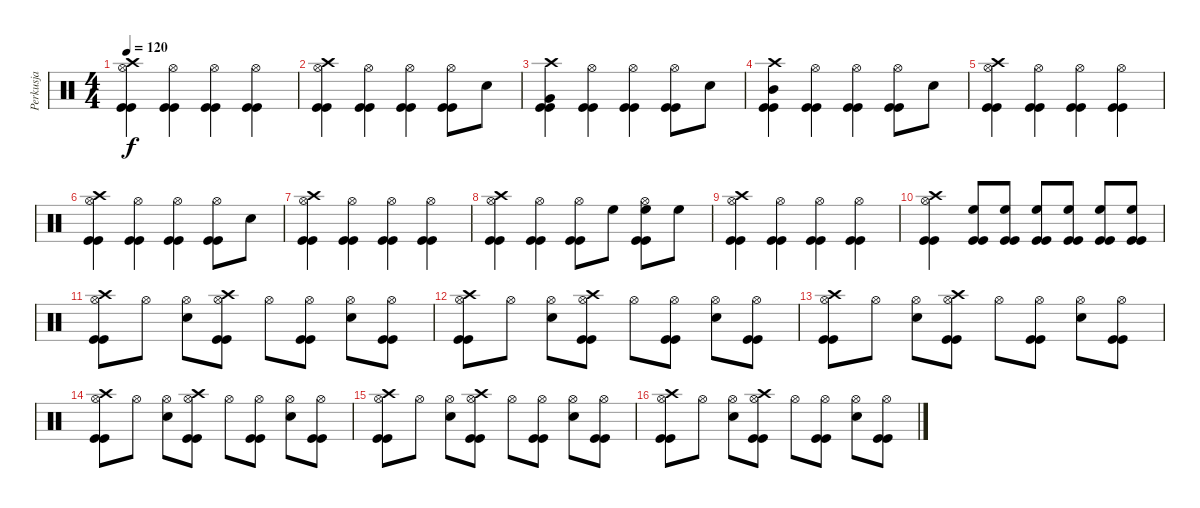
\track ("Perkusja" "Perkusja") {instrument percussion}
\staff
\articulation defaults
\ts (4 4)
\tempo 120
\clef neutral
\ks c
("Crash high (hit)" "Hi-Hat (open)" "Kick (hit)" "Kick (hit)").4{dy f} ("Hi-Hat (open)" "Kick (hit)" "Kick (hit)").4 ("Hi-Hat (open)" "Kick (hit)" "Kick (hit)").4 ("Hi-Hat (open)" "Kick (hit)" "Kick (hit)").4 |
("Crash high (hit)" "Hi-Hat (open)" "Kick (hit)" "Kick (hit)").4 ("Hi-Hat (open)" "Kick (hit)" "Kick (hit)").4 ("Hi-Hat (open)" "Kick (hit)" "Kick (hit)").4 ("Hi-Hat (open)" "Kick (hit)" "Kick (hit)").8 "Snare (hit) 2".8 |
("Crash high (hit)" "Very Low Tom (hit)" "Kick (hit)" "Kick (hit)").4 ("Hi-Hat (open)" "Kick (hit)" "Kick (hit)").4 ("Hi-Hat (open)" "Kick (hit)" "Kick (hit)").4 ("Hi-Hat (open)" "Kick (hit)" "Kick (hit)").8 "Snare (hit) 2".8 |
("Crash high (hit)" "Mid Tom (hit)" "Kick (hit)" "Kick (hit)").4 ("Hi-Hat (open)" "Kick (hit)" "Kick (hit)").4 ("Hi-Hat (open)" "Kick (hit)" "Kick (hit)").4 ("Hi-Hat (open)" "Kick (hit)" "Kick (hit)").8 "Snare (hit) 2".8 |
("Crash high (hit)" "Hi-Hat (open)" "Kick (hit)" "Kick (hit)").4 ("Hi-Hat (open)" "Kick (hit)" "Kick (hit)").4 ("Hi-Hat (open)" "Kick (hit)" "Kick (hit)").4 ("Hi-Hat (open)" "Kick (hit)" "Kick (hit)").4 |
("Crash high (hit)" "Hi-Hat (open)" "Kick (hit)" "Kick (hit)").4 ("Hi-Hat (open)" "Kick (hit)" "Kick (hit)").4 ("Hi-Hat (open)" "Kick (hit)" "Kick (hit)").4 ("Hi-Hat (open)" "Kick (hit)" "Kick (hit)").8 "Snare (hit) 2".8 |
("Crash high (hit)" "Hi-Hat (open)" "Kick (hit)" "Kick (hit)").4 ("Hi-Hat (open)" "Kick (hit)" "Kick (hit)").4 ("Hi-Hat (open)" "Kick (hit)" "Kick (hit)").4 ("Hi-Hat (open)" "Kick (hit)" "Kick (hit)").4 |
("Crash high (hit)" "Hi-Hat (open)" "Kick (hit)" "Kick (hit)").4 ("Hi-Hat (open)" "Kick (hit)" "Kick (hit)").4 ("Hi-Hat (open)" "Kick (hit)" "Kick (hit)").8 "High Floor Tom (hit)".8 ("Hi-Hat (open)" "Kick (hit)" "High Floor Tom (hit)" "Kick (hit)").8 "High Floor Tom (hit)".8 |
("Crash high (hit)" "Hi-Hat (open)" "Kick (hit)" "Kick (hit)").4 ("Hi-Hat (open)" "Kick (hit)" "Kick (hit)").4 ("Hi-Hat (open)" "Kick (hit)" "Kick (hit)").4 ("Hi-Hat (open)" "Kick (hit)" "Kick (hit)").4 |
("Crash high (hit)" "Hi-Hat (open)" "Kick (hit)" "Kick (hit)").4 ("High Floor Tom (hit)" "Kick (hit)" "Kick (hit)").8 ("High Floor Tom (hit)" "Kick (hit)" "Kick (hit)").8 ("High Floor Tom (hit)" "Kick (hit)" "Kick (hit)").8 ("High Floor Tom (hit)" "Kick (hit)" "Kick (hit)").8 ("High Floor Tom (hit)" "Kick (hit)" "Kick (hit)").8 ("High Floor Tom (hit)" "Kick (hit)" "Kick (hit)").8 |
("Hi-Hat (open)" "Crash high (hit)" "Kick (hit)" "Kick (hit)").8 "Hi-Hat (open)".8 ("Hi-Hat (open)" "Snare (hit) 2").8 ("Hi-Hat (open)" "Crash high (hit)" "Kick (hit)" "Kick (hit)").8 "Hi-Hat (open)".8 ("Hi-Hat (open)" "Kick (hit)" "Kick (hit)").8 ("Hi-Hat (open)" "Snare (hit) 2").8 ("Hi-Hat (open)" "Kick (hit)" "Kick (hit)").8 |
("Hi-Hat (open)" "Crash high (hit)" "Kick (hit)" "Kick (hit)").8 "Hi-Hat (open)".8 ("Hi-Hat (open)" "Snare (hit) 2").8 ("Hi-Hat (open)" "Crash high (hit)" "Kick (hit)" "Kick (hit)").8 "Hi-Hat (open)".8 ("Hi-Hat (open)" "Kick (hit)" "Kick (hit)").8 ("Hi-Hat (open)" "Snare (hit) 2").8 ("Hi-Hat (open)" "Kick (hit)" "Kick (hit)").8 |
("Hi-Hat (open)" "Crash high (hit)" "Kick (hit)" "Kick (hit)").8 "Hi-Hat (open)".8 ("Hi-Hat (open)" "Snare (hit) 2").8 ("Hi-Hat (open)" "Crash high (hit)" "Kick (hit)" "Kick (hit)").8 "Hi-Hat (open)".8 ("Hi-Hat (open)" "Kick (hit)" "Kick (hit)").8 ("Hi-Hat (open)" "Snare (hit) 2").8 ("Hi-Hat (open)" "Kick (hit)" "Kick (hit)").8 |
("Hi-Hat (open)" "Crash high (hit)" "Kick (hit)" "Kick (hit)").8 "Hi-Hat (open)".8 ("Hi-Hat (open)" "Snare (hit) 2").8 ("Hi-Hat (open)" "Crash high (hit)" "Kick (hit)" "Kick (hit)").8 "Hi-Hat (open)".8 ("Hi-Hat (open)" "Kick (hit)" "Kick (hit)").8 ("Hi-Hat (open)" "Snare (hit) 2").8 ("Hi-Hat (open)" "Kick (hit)" "Kick (hit)").8 |
("Hi-Hat (open)" "Crash high (hit)" "Kick (hit)" "Kick (hit)").8 "Hi-Hat (open)".8 ("Hi-Hat (open)" "Snare (hit) 2").8 ("Hi-Hat (open)" "Crash high (hit)" "Kick (hit)" "Kick (hit)").8 "Hi-Hat (open)".8 ("Hi-Hat (open)" "Kick (hit)" "Kick (hit)").8 ("Hi-Hat (open)" "Snare (hit) 2").8 ("Hi-Hat (open)" "Kick (hit)" "Kick (hit)").8 |
("Hi-Hat (open)" "Crash high (hit)" "Kick (hit)" "Kick (hit)").8 "Hi-Hat (open)".8 ("Hi-Hat (open)" "Snare (hit) 2").8 ("Hi-Hat (open)" "Crash high (hit)" "Kick (hit)" "Kick (hit)").8 "Hi-Hat (open)".8 ("Hi-Hat (open)" "Kick (hit)" "Kick (hit)").8 ("Hi-Hat (open)" "Snare (hit) 2").8 ("Hi-Hat (open)" "Kick (hit)" "Kick (hit)").8
